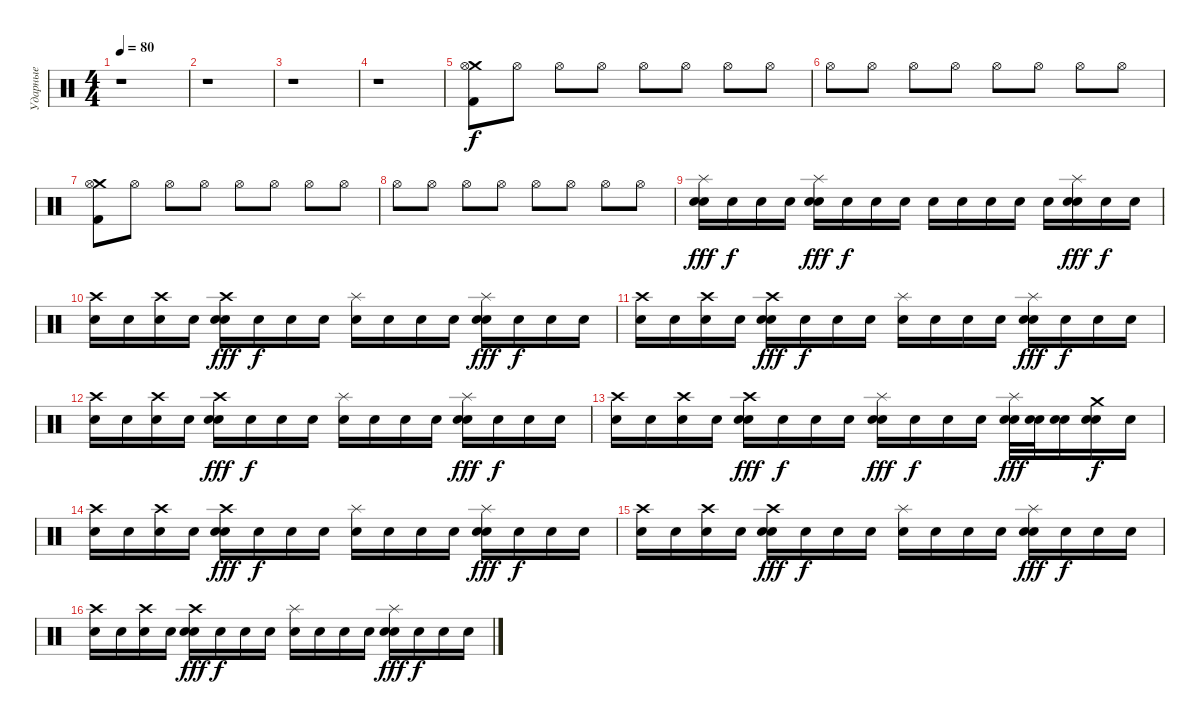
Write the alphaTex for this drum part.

\track ("Ударные" "Ударные") {instrument percussion}
\staff
\articulation defaults
\ts (4 4)
\tempo 80
\clef neutral
\ks c
r.1{dy f} |
r.1 |
r.1 |
r.1 |
("Crash medium (hit)" "Hi-Hat (open)" "Kick (hit) 2").8 "Hi-Hat (open)".8 "Hi-Hat (open)".8 "Hi-Hat (open)".8 "Hi-Hat (open)".8 "Hi-Hat (open)".8 "Hi-Hat (open)".8 "Hi-Hat (open)".8 |
"Hi-Hat (open)".8 "Hi-Hat (open)".8 "Hi-Hat (open)".8 "Hi-Hat (open)".8 "Hi-Hat (open)".8 "Hi-Hat (open)".8 "Hi-Hat (open)".8 "Hi-Hat (open)".8 |
("Crash medium (hit)" "Hi-Hat (open)" "Kick (hit) 2").8 "Hi-Hat (open)".8 "Hi-Hat (open)".8 "Hi-Hat (open)".8 "Hi-Hat (open)".8 "Hi-Hat (open)".8 "Hi-Hat (open)".8 "Hi-Hat (open)".8 |
"Hi-Hat (open)".8 "Hi-Hat (open)".8 "Hi-Hat (open)".8 "Hi-Hat (open)".8 "Hi-Hat (open)".8 "Hi-Hat (open)".8 "Hi-Hat (open)".8 "Hi-Hat (open)".8 |
("Splash (hit)" "Electric Snare (hit)" "Snare (hit)").16{dy fff} "Snare (hit)".16{dy f} "Snare (hit)".16 "Snare (hit)".16 ("Splash (hit)" "Electric Snare (hit)" "Snare (hit)").16{dy fff} "Snare (hit)".16{dy f} "Snare (hit)".16 "Snare (hit)".16 "Snare (hit)".16 "Snare (hit)".16 "Snare (hit)".16 "Snare (hit)".16 "Snare (hit)".16 ("Splash (hit)" "Electric Snare (hit)" "Snare (hit)").16{dy fff} "Snare (hit)".16{dy f} "Snare (hit)".16 |
("Crash high (hit)" "Snare (hit)").16 "Snare (hit)".16 ("Crash high (hit)" "Snare (hit)").16 "Snare (hit)".16 ("Crash high (hit)" "Electric Snare (hit)" "Snare (hit)").16{dy fff} "Snare (hit)".16{dy f} "Snare (hit)".16 "Snare (hit)".16 ("Splash (hit)" "Snare (hit)").16 "Snare (hit)".16 "Snare (hit)".16 "Snare (hit)".16 ("Splash (hit)" "Electric Snare (hit)" "Snare (hit)").16{dy fff} "Snare (hit)".16{dy f} "Snare (hit)".16 "Snare (hit)".16 |
("Crash high (hit)" "Snare (hit)").16 "Snare (hit)".16 ("Crash high (hit)" "Snare (hit)").16 "Snare (hit)".16 ("Crash high (hit)" "Electric Snare (hit)" "Snare (hit)").16{dy fff} "Snare (hit)".16{dy f} "Snare (hit)".16 "Snare (hit)".16 ("Splash (hit)" "Snare (hit)").16 "Snare (hit)".16 "Snare (hit)".16 "Snare (hit)".16 ("Splash (hit)" "Electric Snare (hit)" "Snare (hit)").16{dy fff} "Snare (hit)".16{dy f} "Snare (hit)".16 "Snare (hit)".16 |
("Crash high (hit)" "Snare (hit)").16 "Snare (hit)".16 ("Crash high (hit)" "Snare (hit)").16 "Snare (hit)".16 ("Crash high (hit)" "Electric Snare (hit)" "Snare (hit)").16{dy fff} "Snare (hit)".16{dy f} "Snare (hit)".16 "Snare (hit)".16 ("Splash (hit)" "Snare (hit)").16 "Snare (hit)".16 "Snare (hit)".16 "Snare (hit)".16 ("Splash (hit)" "Electric Snare (hit)" "Snare (hit)").16{dy fff} "Snare (hit)".16{dy f} "Snare (hit)".16 "Snare (hit)".16 |
("Crash high (hit)" "Snare (hit)").16 "Snare (hit)".16 ("Crash high (hit)" "Snare (hit)").16 "Snare (hit)".16 ("Crash high (hit)" "Electric Snare (hit)" "Snare (hit)").16{dy fff} "Snare (hit)".16{dy f} "Snare (hit)".16 "Snare (hit)".16 ("Splash (hit)" "Electric Snare (hit)" "Snare (hit)").16{dy fff} "Snare (hit)".16{dy f} "Snare (hit)".16 "Snare (hit)".16 ("Splash (hit)" "Electric Snare (hit)" "Snare (hit)").32{dy fff} ("Electric Snare (hit)" "Snare (hit)").32 ("Electric Snare (hit)" "Snare (hit)").16 ("Crash medium (hit)" "Electric Snare (hit)" "Snare (hit)").16{dy f} "Snare (hit)".16 |
("Crash high (hit)" "Snare (hit)").16 "Snare (hit)".16 ("Crash high (hit)" "Snare (hit)").16 "Snare (hit)".16 ("Crash high (hit)" "Electric Snare (hit)" "Snare (hit)").16{dy fff} "Snare (hit)".16{dy f} "Snare (hit)".16 "Snare (hit)".16 ("Splash (hit)" "Snare (hit)").16 "Snare (hit)".16 "Snare (hit)".16 "Snare (hit)".16 ("Splash (hit)" "Electric Snare (hit)" "Snare (hit)").16{dy fff} "Snare (hit)".16{dy f} "Snare (hit)".16 "Snare (hit)".16 |
("Crash high (hit)" "Snare (hit)").16 "Snare (hit)".16 ("Crash high (hit)" "Snare (hit)").16 "Snare (hit)".16 ("Crash high (hit)" "Electric Snare (hit)" "Snare (hit)").16{dy fff} "Snare (hit)".16{dy f} "Snare (hit)".16 "Snare (hit)".16 ("Splash (hit)" "Snare (hit)").16 "Snare (hit)".16 "Snare (hit)".16 "Snare (hit)".16 ("Splash (hit)" "Electric Snare (hit)" "Snare (hit)").16{dy fff} "Snare (hit)".16{dy f} "Snare (hit)".16 "Snare (hit)".16 |
("Crash high (hit)" "Snare (hit)").16 "Snare (hit)".16 ("Crash high (hit)" "Snare (hit)").16 "Snare (hit)".16 ("Crash high (hit)" "Electric Snare (hit)" "Snare (hit)").16{dy fff} "Snare (hit)".16{dy f} "Snare (hit)".16 "Snare (hit)".16 ("Splash (hit)" "Snare (hit)").16 "Snare (hit)".16 "Snare (hit)".16 "Snare (hit)".16 ("Splash (hit)" "Electric Snare (hit)" "Snare (hit)").16{dy fff} "Snare (hit)".16{dy f} "Snare (hit)".16 "Snare (hit)".16
